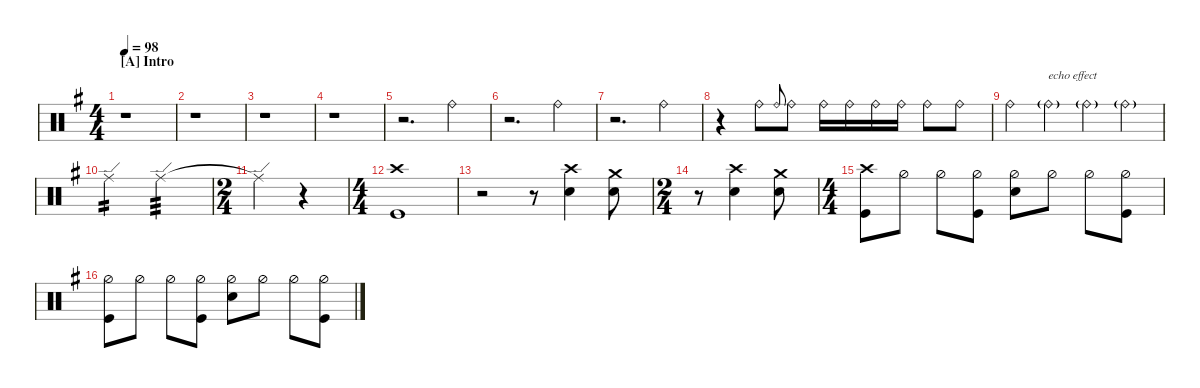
\defaultSystemsLayout 4
\hideDynamics
\bracketExtendMode nobrackets
\otherSystemsTrackNameOrientation horizontal
\track ("Drums" " ") {instrument percussion}
\staff
\articulation defaults
\ts (4 4)
\beaming (8 2 2 2 2)
\section ("A" "Intro")
\tempo 98
\clef neutral
\ks eminor
r.1{dy mf} |
r.1 |
r.1 |
r.1 |
r.2{d} "Ride (bell)"{acc forcenatural}.4 |
r.2{d} "Ride (bell)"{acc forcenatural}.4 |
r.2{d} "Ride (bell)"{acc forcenatural}.4 |
r.4 "Ride (bell)"{acc forcenatural}.8 "Ride (bell)"{acc forcenatural}.8{gr onbeat} "Ride (bell)"{acc forcenatural}.8 "Ride (bell)"{acc forcenatural}.16 "Ride (bell)"{acc forcenatural}.16 "Ride (bell)"{acc forcenatural}.16 "Ride (bell)"{acc forcenatural}.16 "Ride (bell)"{acc forcenatural}.8 "Ride (bell)"{acc forcenatural}.8 |
"Ride (bell)"{acc forcenatural}.4{dy ff} "Ride (bell)"{g acc forcenatural}.4{txt "echo effect" dy mf} "Ride (bell)"{g acc forcenatural}.4{dy mp} "Ride (bell)"{g acc forcenatural}.4{dy p} |
"Ride (edge)"{acc forcenatural}.2{tp 2 dy pp} "Ride (edge)"{acc forcenatural}.2{tp 3 dy mp} |
\ts (2 4)
\beaming (8 2 2)
"Ride (edge)"{t acc forcenatural}.4{dy f} r.4 |
\ts (4 4)
\beaming (8 2 2 2 2)
("Kick (hit)"{acc forcenatural} "Crash high (hit)"{acc forcenatural}).1 |
r.2 r.8 ("Snare (hit) 2"{acc forcenatural} "Crash high (hit)"{acc forcenatural}).4 ("Snare (hit) 2"{acc forcenatural} "Crash medium (hit)"{acc forcenatural}).8 |
\ts (2 4)
\beaming (8 2 2)
r.8 ("Crash high (hit)"{acc forcenatural} "Snare (hit) 2"{acc forcenatural}).4 ("Crash medium (hit)"{acc forcenatural} "Snare (hit) 2"{acc forcenatural}).8 |
\ts (4 4)
\beaming (8 2 2 2 2)
("Kick (hit)"{acc forcenatural} "Crash high (hit)"{acc forcenatural}).8 "Hi-Hat (half)"{acc forcenatural}.8 "Hi-Hat (half)"{acc forcenatural}.8 ("Hi-Hat (half)"{acc forcenatural} "Kick (hit)"{acc forcenatural}).8 ("Hi-Hat (half)"{acc forcenatural} "Snare (hit) 2"{acc forcenatural}).8 "Hi-Hat (half)"{acc forcenatural}.8 "Hi-Hat (half)"{acc forcenatural}.8 ("Hi-Hat (half)"{acc forcenatural} "Kick (hit)"{acc forcenatural}).8 |
("Hi-Hat (half)"{acc forcenatural} "Kick (hit)"{acc forcenatural}).8 "Hi-Hat (half)"{acc forcenatural}.8 "Hi-Hat (half)"{acc forcenatural}.8 ("Hi-Hat (half)"{acc forcenatural} "Kick (hit)"{acc forcenatural}).8 ("Hi-Hat (half)"{acc forcenatural} "Snare (hit) 2"{acc forcenatural}).8 "Hi-Hat (half)"{acc forcenatural}.8 "Hi-Hat (half)"{acc forcenatural}.8 ("Hi-Hat (half)"{acc forcenatural} "Kick (hit)"{acc forcenatural}).8
